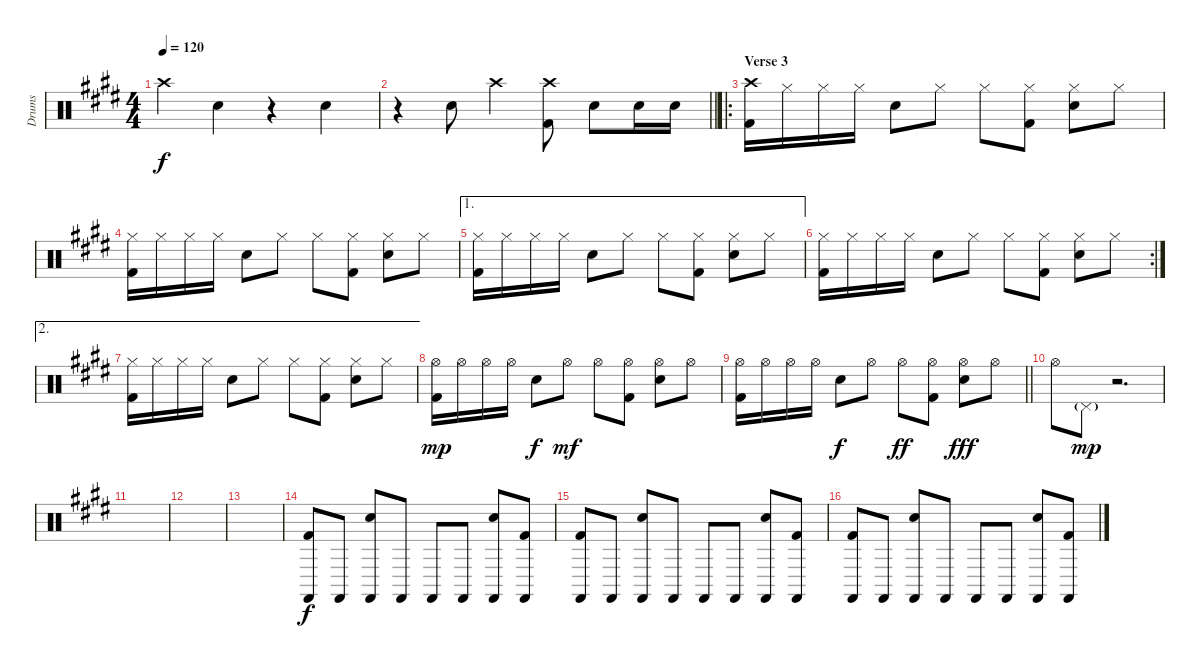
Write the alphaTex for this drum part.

\track ("Drums" "Drums") {instrument percussion}
\staff {score}
\articulation defaults
\ts (4 4)
\tempo 120
\clef neutral
\ks c#minor "Crash high (hit)".4{dy f} "Electric Snare (hit)".4
r.4 "Electric Snare (hit)".4 |
\barLineRight lightlight
r.4 "Electric Snare (hit)".8 "Crash high (hit)".4 ("Crash high (hit)" "Kick (hit) 2").8 "Electric Snare (hit)".8 "Electric Snare (hit)".16 "Electric Snare (hit)".16 |
\ro
\section ("" "Verse 3")
\ks e
("Crash high (hit)" "Kick (hit) 2").16 "Hi-Hat (closed)".16 "Hi-Hat (closed)".16 "Hi-Hat (closed)".16 "Electric Snare (hit)".8 "Hi-Hat (closed)".8 "Hi-Hat (closed)".8 ("Hi-Hat (closed)" "Kick (hit) 2").8 ("Hi-Hat (closed)" "Electric Snare (hit)").8 "Hi-Hat (closed)".8 |
("Hi-Hat (closed)" "Kick (hit) 2").16 "Hi-Hat (closed)".16 "Hi-Hat (closed)".16 "Hi-Hat (closed)".16 "Electric Snare (hit)".8 "Hi-Hat (closed)".8 "Hi-Hat (closed)".8 ("Hi-Hat (closed)" "Kick (hit) 2").8 ("Hi-Hat (closed)" "Electric Snare (hit)").8 "Hi-Hat (closed)".8 |
\ae 1
("Hi-Hat (closed)" "Kick (hit) 2").16 "Hi-Hat (closed)".16 "Hi-Hat (closed)".16 "Hi-Hat (closed)".16 "Electric Snare (hit)".8 "Hi-Hat (closed)".8 "Hi-Hat (closed)".8 ("Hi-Hat (closed)" "Kick (hit) 2").8 ("Hi-Hat (closed)" "Electric Snare (hit)").8 "Hi-Hat (closed)".8 |
\rc 2
("Hi-Hat (closed)" "Kick (hit) 2").16 "Hi-Hat (closed)".16 "Hi-Hat (closed)".16 "Hi-Hat (closed)".16 "Electric Snare (hit)".8 "Hi-Hat (closed)".8 "Hi-Hat (closed)".8 ("Hi-Hat (closed)" "Kick (hit) 2").8 ("Hi-Hat (closed)" "Electric Snare (hit)").8 "Hi-Hat (closed)".8 |
\ae 2
("Hi-Hat (closed)" "Kick (hit) 2").16 "Hi-Hat (closed)".16 "Hi-Hat (closed)".16 "Hi-Hat (closed)".16 "Electric Snare (hit)".8 "Hi-Hat (closed)".8 "Hi-Hat (closed)".8 ("Hi-Hat (closed)" "Kick (hit) 2").8 ("Hi-Hat (closed)" "Electric Snare (hit)").8 "Hi-Hat (closed)".8 |
("Hi-Hat (open)" "Kick (hit) 2").16{dy mp} "Hi-Hat (open)".16 "Hi-Hat (open)".16 "Hi-Hat (open)".16 "Electric Snare (hit)".8{dy f} "Hi-Hat (open)".8{dy mf} "Hi-Hat (open)".8 ("Hi-Hat (open)" "Kick (hit) 2").8 ("Hi-Hat (open)" "Electric Snare (hit)").8 "Hi-Hat (open)".8 |
\barLineRight lightlight
("Hi-Hat (open)" "Kick (hit) 2").16 "Hi-Hat (open)".16 "Hi-Hat (open)".16 "Hi-Hat (open)".16 "Electric Snare (hit)".8{dy f} "Hi-Hat (open)".8 "Hi-Hat (open)".8{dy ff} ("Hi-Hat (open)" "Kick (hit) 2").8 ("Hi-Hat (open)" "Electric Snare (hit)").8{dy fff} "Hi-Hat (open)".8 |
"Hi-Hat (open)".8 "Pedal Hi-Hat (hit)"{g}.8{dy mp} r.2{d} |
\ks c#minor
|
|
|
\ks e
("Castanets (hit)" "Kick (hit) 2").8{dy f} "Castanets (hit)".8 ("Castanets (hit)" "Snare (hit) 2").8 "Castanets (hit)".8 "Castanets (hit)".8 "Castanets (hit)".8 ("Castanets (hit)" "Snare (hit) 2").8 ("Castanets (hit)" "Kick (hit) 2").8 |
("Castanets (hit)" "Kick (hit) 2").8 "Castanets (hit)".8 ("Castanets (hit)" "Snare (hit) 2").8 "Castanets (hit)".8 "Castanets (hit)".8 "Castanets (hit)".8 ("Castanets (hit)" "Snare (hit) 2").8 ("Castanets (hit)" "Kick (hit) 2").8 |
("Castanets (hit)" "Kick (hit) 2").8 "Castanets (hit)".8 ("Castanets (hit)" "Snare (hit) 2").8 "Castanets (hit)".8 "Castanets (hit)".8 "Castanets (hit)".8 ("Castanets (hit)" "Snare (hit) 2").8 ("Castanets (hit)" "Kick (hit) 2").8
